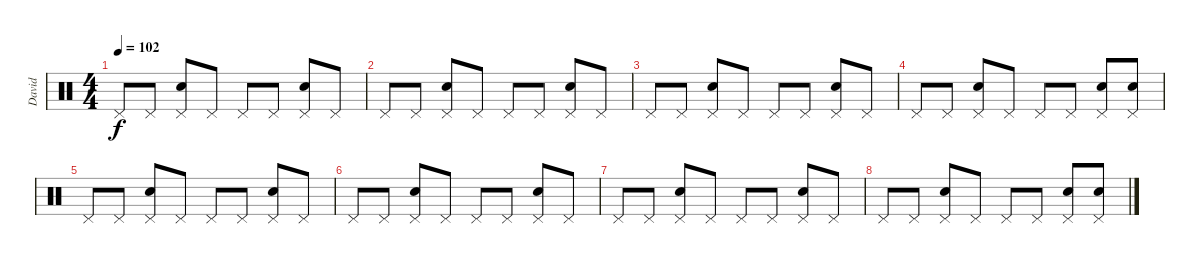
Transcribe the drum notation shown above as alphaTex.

\track ("David" "David") {instrument percussion}
\staff {score}
\articulation defaults
\ts (4 4)
\tempo 102
\clef neutral
\ks c "Pedal Hi-Hat (hit)".8{dy f} "Pedal Hi-Hat (hit)".8
("Pedal Hi-Hat (hit)" "Snare (hit) 2").8 "Pedal Hi-Hat (hit)".8 "Pedal Hi-Hat (hit)".8 "Pedal Hi-Hat (hit)".8 ("Pedal Hi-Hat (hit)" "Snare (hit) 2").8 "Pedal Hi-Hat (hit)".8 |
"Pedal Hi-Hat (hit)".8 "Pedal Hi-Hat (hit)".8 ("Pedal Hi-Hat (hit)" "Snare (hit) 2").8 "Pedal Hi-Hat (hit)".8 "Pedal Hi-Hat (hit)".8 "Pedal Hi-Hat (hit)".8 ("Pedal Hi-Hat (hit)" "Snare (hit) 2").8 "Pedal Hi-Hat (hit)".8 |
"Pedal Hi-Hat (hit)".8 "Pedal Hi-Hat (hit)".8 ("Pedal Hi-Hat (hit)" "Snare (hit) 2").8 "Pedal Hi-Hat (hit)".8 "Pedal Hi-Hat (hit)".8 "Pedal Hi-Hat (hit)".8 ("Pedal Hi-Hat (hit)" "Snare (hit) 2").8 "Pedal Hi-Hat (hit)".8 |
"Pedal Hi-Hat (hit)".8 "Pedal Hi-Hat (hit)".8 ("Pedal Hi-Hat (hit)" "Snare (hit) 2").8 "Pedal Hi-Hat (hit)".8 "Pedal Hi-Hat (hit)".8 "Pedal Hi-Hat (hit)".8 ("Pedal Hi-Hat (hit)" "Snare (hit) 2").8 ("Pedal Hi-Hat (hit)" "Snare (hit) 2").8 |
"Pedal Hi-Hat (hit)".8 "Pedal Hi-Hat (hit)".8 ("Pedal Hi-Hat (hit)" "Snare (hit) 2").8 "Pedal Hi-Hat (hit)".8 "Pedal Hi-Hat (hit)".8 "Pedal Hi-Hat (hit)".8 ("Pedal Hi-Hat (hit)" "Snare (hit) 2").8 "Pedal Hi-Hat (hit)".8 |
"Pedal Hi-Hat (hit)".8 "Pedal Hi-Hat (hit)".8 ("Pedal Hi-Hat (hit)" "Snare (hit) 2").8 "Pedal Hi-Hat (hit)".8 "Pedal Hi-Hat (hit)".8 "Pedal Hi-Hat (hit)".8 ("Pedal Hi-Hat (hit)" "Snare (hit) 2").8 "Pedal Hi-Hat (hit)".8 |
"Pedal Hi-Hat (hit)".8 "Pedal Hi-Hat (hit)".8 ("Pedal Hi-Hat (hit)" "Snare (hit) 2").8 "Pedal Hi-Hat (hit)".8 "Pedal Hi-Hat (hit)".8 "Pedal Hi-Hat (hit)".8 ("Pedal Hi-Hat (hit)" "Snare (hit) 2").8 "Pedal Hi-Hat (hit)".8 |
"Pedal Hi-Hat (hit)".8 "Pedal Hi-Hat (hit)".8 ("Pedal Hi-Hat (hit)" "Snare (hit) 2").8 "Pedal Hi-Hat (hit)".8 "Pedal Hi-Hat (hit)".8 "Pedal Hi-Hat (hit)".8 ("Pedal Hi-Hat (hit)" "Snare (hit) 2").8 ("Pedal Hi-Hat (hit)" "Snare (hit) 2").8
